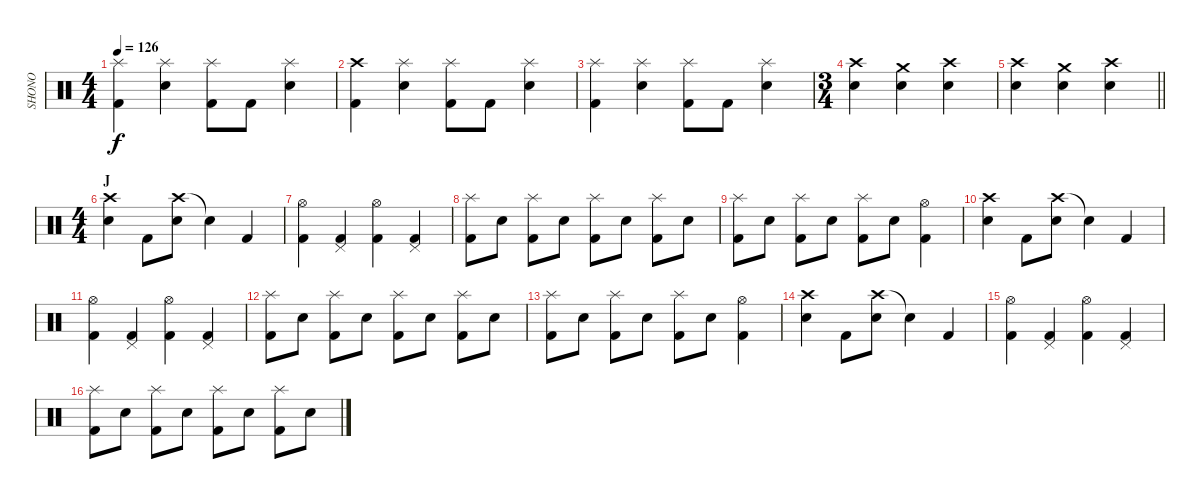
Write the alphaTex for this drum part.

\track ("SHONO" "SHONO") {instrument percussion}
\staff {score}
\articulation defaults
\ts (4 4)
\tempo 126
\clef neutral
\ks c
("Splash (hit)" "Kick (hit) 2").4{dy f} ("Splash (hit)" "Snare (hit) 2").4 ("Splash (hit)" "Kick (hit) 2").8 "Kick (hit) 2".8 ("Splash (hit)" "Snare (hit) 2").4 |
("Crash high (hit)" "Kick (hit) 2").4 ("Splash (hit)" "Snare (hit) 2").4 ("Splash (hit)" "Kick (hit) 2").8 "Kick (hit) 2".8 ("Splash (hit)" "Snare (hit) 2").4 |
("Splash (hit)" "Kick (hit) 2").4 ("Splash (hit)" "Snare (hit) 2").4 ("Splash (hit)" "Kick (hit) 2").8 "Kick (hit) 2".8 ("Splash (hit)" "Snare (hit) 2").4 |
\ts (3 4)
("Crash high (hit)" "Snare (hit) 2").4 ("Crash medium (hit)" "Snare (hit) 2").4 ("Crash high (hit)" "Snare (hit) 2").4 |
\barLineRight lightlight
("Crash high (hit)" "Snare (hit) 2").4 ("Crash medium (hit)" "Snare (hit) 2").4 ("Crash high (hit)" "Snare (hit) 2").4 |
\ts (4 4)
\section ("" "J")
("Crash high (hit)" "Snare (hit) 2").4 "Kick (hit) 2".8 ("Crash high (hit)" "Snare (hit) 2").8 "Snare (hit)"{t}.4 "Kick (hit) 2".4 |
("Hi-Hat (open)" "Kick (hit) 2").4 ("Pedal Hi-Hat (hit)" "Kick (hit) 2").4 ("Hi-Hat (open)" "Kick (hit) 2").4 ("Pedal Hi-Hat (hit)" "Kick (hit) 2").4 |
("Splash (hit)" "Kick (hit) 2").8 "Snare (hit) 2".8 ("Splash (hit)" "Kick (hit) 2").8 "Snare (hit) 2".8 ("Splash (hit)" "Kick (hit) 2").8 "Snare (hit) 2".8 ("Splash (hit)" "Kick (hit) 2").8 "Snare (hit) 2".8 |
("Splash (hit)" "Kick (hit) 2").8 "Snare (hit) 2".8 ("Splash (hit)" "Kick (hit) 2").8 "Snare (hit) 2".8 ("Splash (hit)" "Kick (hit) 2").8 "Snare (hit) 2".8 ("Hi-Hat (open)" "Kick (hit) 2").4 |
("Crash high (hit)" "Snare (hit) 2").4 "Kick (hit) 2".8 ("Crash high (hit)" "Snare (hit) 2").8 "Snare (hit)"{t}.4 "Kick (hit) 2".4 |
("Hi-Hat (open)" "Kick (hit) 2").4 ("Pedal Hi-Hat (hit)" "Kick (hit) 2").4 ("Hi-Hat (open)" "Kick (hit) 2").4 ("Pedal Hi-Hat (hit)" "Kick (hit) 2").4 |
("Splash (hit)" "Kick (hit) 2").8 "Snare (hit) 2".8 ("Splash (hit)" "Kick (hit) 2").8 "Snare (hit) 2".8 ("Splash (hit)" "Kick (hit) 2").8 "Snare (hit) 2".8 ("Splash (hit)" "Kick (hit) 2").8 "Snare (hit) 2".8 |
("Splash (hit)" "Kick (hit) 2").8 "Snare (hit) 2".8 ("Splash (hit)" "Kick (hit) 2").8 "Snare (hit) 2".8 ("Splash (hit)" "Kick (hit) 2").8 "Snare (hit) 2".8 ("Hi-Hat (open)" "Kick (hit) 2").4 |
("Crash high (hit)" "Snare (hit) 2").4 "Kick (hit) 2".8 ("Crash high (hit)" "Snare (hit) 2").8 "Snare (hit)"{t}.4 "Kick (hit) 2".4 |
("Hi-Hat (open)" "Kick (hit) 2").4 ("Pedal Hi-Hat (hit)" "Kick (hit) 2").4 ("Hi-Hat (open)" "Kick (hit) 2").4 ("Pedal Hi-Hat (hit)" "Kick (hit) 2").4 |
("Splash (hit)" "Kick (hit) 2").8 "Snare (hit) 2".8 ("Splash (hit)" "Kick (hit) 2").8 "Snare (hit) 2".8 ("Splash (hit)" "Kick (hit) 2").8 "Snare (hit) 2".8 ("Splash (hit)" "Kick (hit) 2").8 "Snare (hit) 2".8
